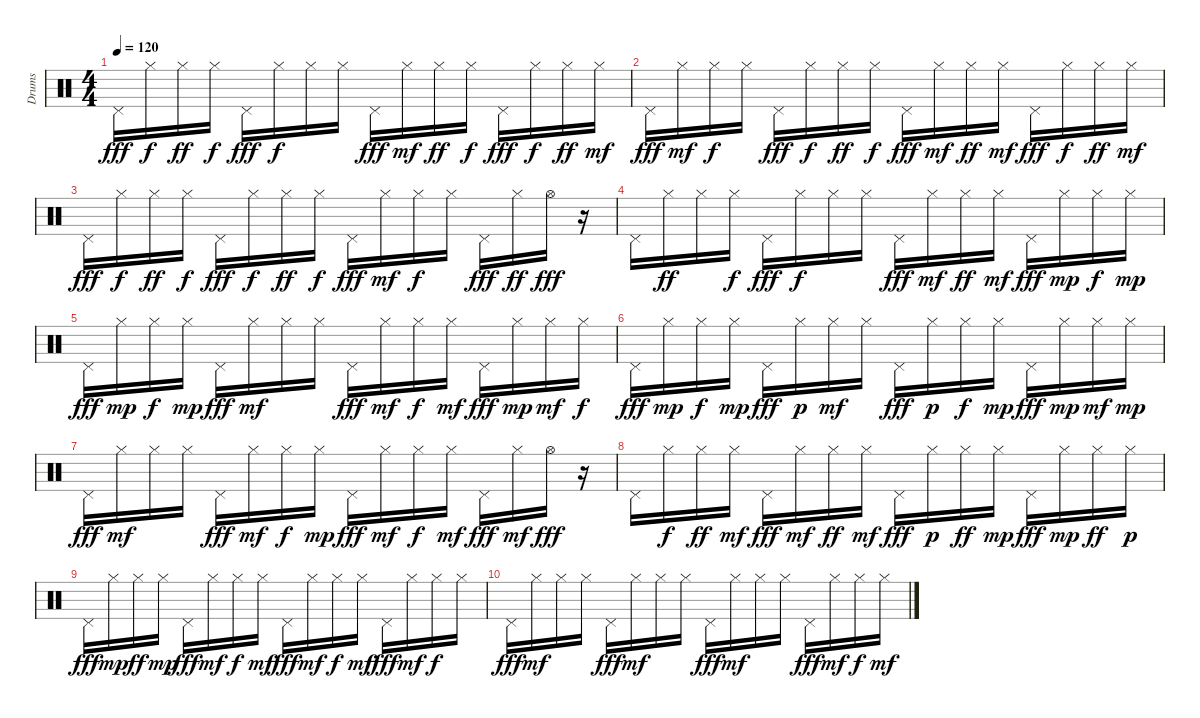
\track ("Drums" "Drums") {instrument percussion}
\staff {score}
\articulation defaults
\ts (4 4)
\tempo 120
\clef neutral
\ks c "Pedal Hi-Hat (hit)".16{dy fff} "Hi-Hat (closed)".16{dy f} "Hi-Hat (closed)".16{dy ff} "Hi-Hat (closed)".16{dy f} "Pedal Hi-Hat (hit)".16{dy fff} "Hi-Hat (closed)".16{dy f} "Hi-Hat (closed)".16 "Hi-Hat (closed)".16 "Pedal Hi-Hat (hit)".16{dy fff} "Hi-Hat (closed)".16{dy mf} "Hi-Hat (closed)".16{dy ff} "Hi-Hat (closed)".16{dy f} "Pedal Hi-Hat (hit)".16{dy fff} "Hi-Hat (closed)".16{dy f} "Hi-Hat (closed)".16{dy ff} "Hi-Hat (closed)".16{dy mf}
|
"Pedal Hi-Hat (hit)".16{dy fff} "Hi-Hat (closed)".16{dy mf} "Hi-Hat (closed)".16{dy f} "Hi-Hat (closed)".16 "Pedal Hi-Hat (hit)".16{dy fff} "Hi-Hat (closed)".16{dy f} "Hi-Hat (closed)".16{dy ff} "Hi-Hat (closed)".16{dy f} "Pedal Hi-Hat (hit)".16{dy fff} "Hi-Hat (closed)".16{dy mf} "Hi-Hat (closed)".16{dy ff} "Hi-Hat (closed)".16{dy mf} "Pedal Hi-Hat (hit)".16{dy fff} "Hi-Hat (closed)".16{dy f} "Hi-Hat (closed)".16{dy ff} "Hi-Hat (closed)".16{dy mf} |
"Pedal Hi-Hat (hit)".16{dy fff} "Hi-Hat (closed)".16{dy f volume 15} "Hi-Hat (closed)".16{dy ff volume 15} "Hi-Hat (closed)".16{dy f volume 15} "Pedal Hi-Hat (hit)".16{dy fff volume 15} "Hi-Hat (closed)".16{dy f volume 14} "Hi-Hat (closed)".16{dy ff volume 14} "Hi-Hat (closed)".16{dy f volume 14} "Pedal Hi-Hat (hit)".16{dy fff volume 14} "Hi-Hat (closed)".16{dy mf volume 14} "Hi-Hat (closed)".16{dy f volume 14} "Hi-Hat (closed)".16 "Pedal Hi-Hat (hit)".16{dy fff volume 14} "Hi-Hat (closed)".16{dy ff volume 14} "Hi-Hat (open)".16{dy fff volume 13} r.16 |
"Pedal Hi-Hat (hit)".16{volume 13} "Hi-Hat (closed)".16{dy ff volume 13} "Hi-Hat (closed)".16{volume 13} "Hi-Hat (closed)".16{dy f volume 13} "Pedal Hi-Hat (hit)".16{dy fff volume 13} "Hi-Hat (closed)".16{dy f volume 13} "Hi-Hat (closed)".16{volume 12} "Hi-Hat (closed)".16{volume 12} "Pedal Hi-Hat (hit)".16{dy fff volume 12} "Hi-Hat (closed)".16{dy mf} "Hi-Hat (closed)".16{dy ff volume 12} "Hi-Hat (closed)".16{dy mf volume 12} "Pedal Hi-Hat (hit)".16{dy fff volume 12} "Hi-Hat (closed)".16{dy mp volume 12} "Hi-Hat (closed)".16{dy f volume 12} "Hi-Hat (closed)".16{dy mp volume 11} |
"Pedal Hi-Hat (hit)".16{dy fff volume 11} "Hi-Hat (closed)".16{dy mp volume 11} "Hi-Hat (closed)".16{dy f volume 11} "Hi-Hat (closed)".16{dy mp volume 11} "Pedal Hi-Hat (hit)".16{dy fff volume 11} "Hi-Hat (closed)".16{dy mf volume 11} "Hi-Hat (closed)".16{volume 11} "Hi-Hat (closed)".16{volume 10} "Pedal Hi-Hat (hit)".16{dy fff} "Hi-Hat (closed)".16{dy mf volume 10} "Hi-Hat (closed)".16{dy f volume 10} "Hi-Hat (closed)".16{dy mf volume 10} "Pedal Hi-Hat (hit)".16{dy fff volume 10} "Hi-Hat (closed)".16{dy mp volume 10} "Hi-Hat (closed)".16{dy mf volume 10} "Hi-Hat (closed)".16{dy f volume 10} |
"Pedal Hi-Hat (hit)".16{dy fff volume 9} "Hi-Hat (closed)".16{dy mp volume 9} "Hi-Hat (closed)".16{dy f volume 9} "Hi-Hat (closed)".16{dy mp volume 9} "Pedal Hi-Hat (hit)".16{dy fff volume 9} "Hi-Hat (closed)".16{dy p volume 9} "Hi-Hat (closed)".16{dy mf volume 9} "Hi-Hat (closed)".16 "Pedal Hi-Hat (hit)".16{dy fff volume 9} "Hi-Hat (closed)".16{dy p volume 8} "Hi-Hat (closed)".16{dy f volume 8} "Hi-Hat (closed)".16{dy mp volume 8} "Pedal Hi-Hat (hit)".16{dy fff volume 8} "Hi-Hat (closed)".16{dy mp volume 8} "Hi-Hat (closed)".16{dy mf volume 8} "Hi-Hat (closed)".16{dy mp volume 8} |
"Pedal Hi-Hat (hit)".16{dy fff volume 8} "Hi-Hat (closed)".16{dy mf volume 7} "Hi-Hat (closed)".16{volume 7} "Hi-Hat (closed)".16{volume 7} "Pedal Hi-Hat (hit)".16{dy fff volume 7} "Hi-Hat (closed)".16{dy mf volume 7} "Hi-Hat (closed)".16{dy f} "Hi-Hat (closed)".16{dy mp volume 7} "Pedal Hi-Hat (hit)".16{dy fff volume 7} "Hi-Hat (closed)".16{dy mf volume 7} "Hi-Hat (closed)".16{dy f volume 6} "Hi-Hat (closed)".16{dy mf volume 6} "Pedal Hi-Hat (hit)".16{dy fff volume 6} "Hi-Hat (closed)".16{dy mf volume 6} "Hi-Hat (open)".16{dy fff volume 6} r.16 |
"Pedal Hi-Hat (hit)".16{volume 6} "Hi-Hat (closed)".16{dy f volume 6} "Hi-Hat (closed)".16{dy ff volume 5} "Hi-Hat (closed)".16{dy mf volume 5} "Pedal Hi-Hat (hit)".16{dy fff} "Hi-Hat (closed)".16{dy mf volume 5} "Hi-Hat (closed)".16{dy ff volume 5} "Hi-Hat (closed)".16{dy mf volume 5} "Pedal Hi-Hat (hit)".16{dy fff volume 5} "Hi-Hat (closed)".16{dy p volume 5} "Hi-Hat (closed)".16{dy ff volume 5} "Hi-Hat (closed)".16{dy mp volume 4} "Pedal Hi-Hat (hit)".16{dy fff volume 4} "Hi-Hat (closed)".16{dy mp volume 4} "Hi-Hat (closed)".16{dy ff volume 4} "Hi-Hat (closed)".16{dy p volume 4} |
"Pedal Hi-Hat (hit)".16{dy fff volume 4} "Hi-Hat (closed)".16{dy mp volume 4} "Hi-Hat (closed)".16{dy ff volume 4} "Hi-Hat (closed)".16{dy mp} "Pedal Hi-Hat (hit)".16{dy fff volume 3} "Hi-Hat (closed)".16{dy mf volume 3} "Hi-Hat (closed)".16{dy f volume 3} "Hi-Hat (closed)".16{dy mf volume 3} "Pedal Hi-Hat (hit)".16{dy fff volume 3} "Hi-Hat (closed)".16{dy mf volume 3} "Hi-Hat (closed)".16{dy f volume 3} "Hi-Hat (closed)".16{dy mf volume 3} "Pedal Hi-Hat (hit)".16{dy fff volume 2} "Hi-Hat (closed)".16{dy mf volume 2} "Hi-Hat (closed)".16{dy f volume 2} "Hi-Hat (closed)".16{volume 2} |
"Pedal Hi-Hat (hit)".16{dy fff volume 2} "Hi-Hat (closed)".16{dy mf volume 2} "Hi-Hat (closed)".16 "Hi-Hat (closed)".16{volume 2} "Pedal Hi-Hat (hit)".16{dy fff volume 2} "Hi-Hat (closed)".16{dy mf volume 1} "Hi-Hat (closed)".16{volume 1} "Hi-Hat (closed)".16{volume 1} "Pedal Hi-Hat (hit)".16{dy fff volume 1} "Hi-Hat (closed)".16{dy mf volume 1} "Hi-Hat (closed)".16{volume 1} "Hi-Hat (closed)".16{volume 1} "Pedal Hi-Hat (hit)".16{dy fff volume 1} "Hi-Hat (closed)".16{dy mf volume 0} "Hi-Hat (closed)".16{dy f volume 0} "Hi-Hat (closed)".16{dy mf volume 0}
